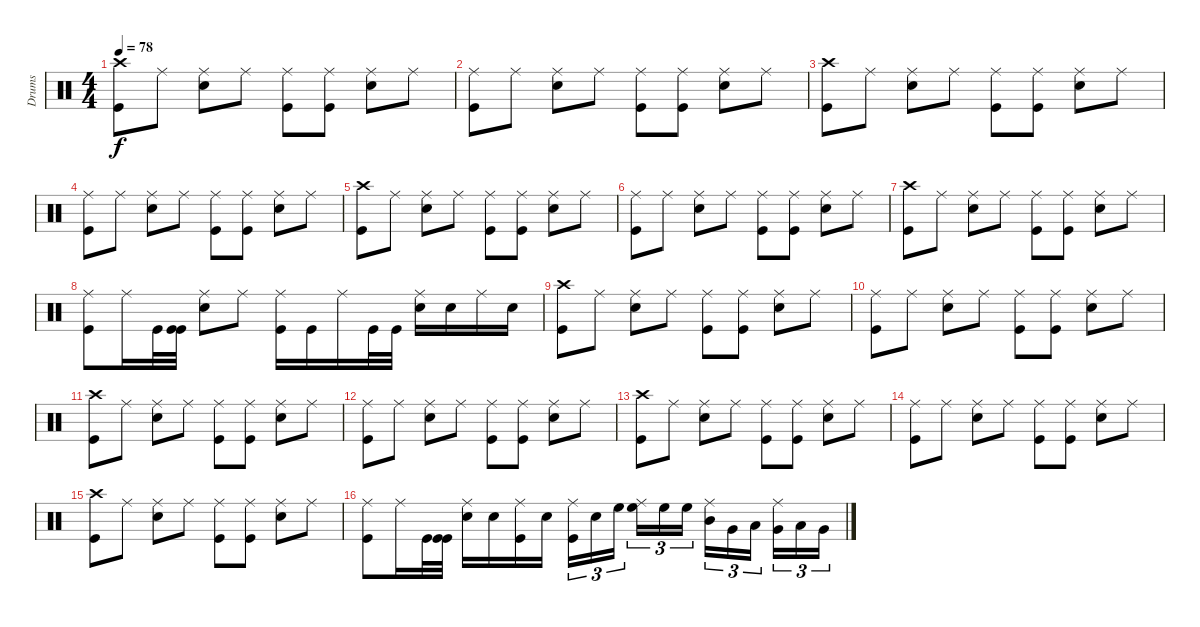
\track ("Drums" "Drums") {instrument percussion}
\staff {score}
\articulation defaults
\ts (4 4)
\tempo 78
\clef neutral
\ks c
("Kick (hit)" "Crash high (hit)").8{dy f} "Ride (middle)".8 ("Snare (hit) 2" "Ride (middle)").8 "Ride (middle)".8 ("Kick (hit)" "Ride (middle)").8 ("Kick (hit)" "Ride (middle)").8 ("Snare (hit) 2" "Ride (middle)").8 "Ride (middle)".8 |
("Kick (hit)" "Ride (middle)").8 "Ride (middle)".8 ("Snare (hit) 2" "Ride (middle)").8 "Ride (middle)".8 ("Kick (hit)" "Ride (middle)").8 ("Kick (hit)" "Ride (middle)").8 ("Snare (hit) 2" "Ride (middle)").8 "Ride (middle)".8 |
("Kick (hit)" "Crash high (hit)").8 "Ride (middle)".8 ("Snare (hit) 2" "Ride (middle)").8 "Ride (middle)".8 ("Kick (hit)" "Ride (middle)").8 ("Kick (hit)" "Ride (middle)").8 ("Snare (hit) 2" "Ride (middle)").8 "Ride (middle)".8 |
("Kick (hit)" "Ride (middle)").8 "Ride (middle)".8 ("Snare (hit) 2" "Ride (middle)").8 "Ride (middle)".8 ("Kick (hit)" "Ride (middle)").8 ("Kick (hit)" "Ride (middle)").8 ("Snare (hit) 2" "Ride (middle)").8 "Ride (middle)".8 |
("Kick (hit)" "Crash high (hit)").8 "Ride (middle)".8 ("Snare (hit) 2" "Ride (middle)").8 "Ride (middle)".8 ("Kick (hit)" "Ride (middle)").8 ("Kick (hit)" "Ride (middle)").8 ("Snare (hit) 2" "Ride (middle)").8 "Ride (middle)".8 |
("Kick (hit)" "Ride (middle)").8 "Ride (middle)".8 ("Snare (hit) 2" "Ride (middle)").8 "Ride (middle)".8 ("Kick (hit)" "Ride (middle)").8 ("Kick (hit)" "Ride (middle)").8 ("Snare (hit) 2" "Ride (middle)").8 "Ride (middle)".8 |
("Kick (hit)" "Crash high (hit)").8 "Ride (middle)".8 ("Snare (hit) 2" "Ride (middle)").8 "Ride (middle)".8 ("Kick (hit)" "Ride (middle)").8 ("Kick (hit)" "Ride (middle)").8 ("Snare (hit) 2" "Ride (middle)").8 "Ride (middle)".8 |
("Kick (hit)" "Ride (middle)").8 "Ride (middle)".16 "Kick (hit)".32 ("Kick (hit)" "Kick (hit)").32 ("Snare (hit) 2" "Ride (middle)").8 "Ride (middle)".8 ("Kick (hit)" "Ride (middle)").16 "Kick (hit)".16 "Ride (middle)".16 "Kick (hit)".32 "Kick (hit)".32 ("Snare (hit) 2" "Ride (middle)").16 "Snare (hit) 2".16 "Ride (middle)".16 "Snare (hit) 2".16 |
("Kick (hit)" "Crash high (hit)").8 "Ride (middle)".8 ("Snare (hit) 2" "Ride (middle)").8 "Ride (middle)".8 ("Kick (hit)" "Ride (middle)").8 ("Kick (hit)" "Ride (middle)").8 ("Snare (hit) 2" "Ride (middle)").8 "Ride (middle)".8 |
("Kick (hit)" "Ride (middle)").8 "Ride (middle)".8 ("Snare (hit) 2" "Ride (middle)").8 "Ride (middle)".8 ("Kick (hit)" "Ride (middle)").8 ("Kick (hit)" "Ride (middle)").8 ("Snare (hit) 2" "Ride (middle)").8 "Ride (middle)".8 |
("Kick (hit)" "Crash high (hit)").8 "Ride (middle)".8 ("Snare (hit) 2" "Ride (middle)").8 "Ride (middle)".8 ("Kick (hit)" "Ride (middle)").8 ("Kick (hit)" "Ride (middle)").8 ("Snare (hit) 2" "Ride (middle)").8 "Ride (middle)".8 |
("Kick (hit)" "Ride (middle)").8 "Ride (middle)".8 ("Snare (hit) 2" "Ride (middle)").8 "Ride (middle)".8 ("Kick (hit)" "Ride (middle)").8 ("Kick (hit)" "Ride (middle)").8 ("Snare (hit) 2" "Ride (middle)").8 "Ride (middle)".8 |
("Kick (hit)" "Crash high (hit)").8 "Ride (middle)".8 ("Snare (hit) 2" "Ride (middle)").8 "Ride (middle)".8 ("Kick (hit)" "Ride (middle)").8 ("Kick (hit)" "Ride (middle)").8 ("Snare (hit) 2" "Ride (middle)").8 "Ride (middle)".8 |
("Kick (hit)" "Ride (middle)").8 "Ride (middle)".8 ("Snare (hit) 2" "Ride (middle)").8 "Ride (middle)".8 ("Kick (hit)" "Ride (middle)").8 ("Kick (hit)" "Ride (middle)").8 ("Snare (hit) 2" "Ride (middle)").8 "Ride (middle)".8 |
("Kick (hit)" "Crash high (hit)").8 "Ride (middle)".8 ("Snare (hit) 2" "Ride (middle)").8 "Ride (middle)".8 ("Kick (hit)" "Ride (middle)").8 ("Kick (hit)" "Ride (middle)").8 ("Snare (hit) 2" "Ride (middle)").8 "Ride (middle)".8 |
("Kick (hit)" "Ride (middle)").8 "Ride (middle)".16 "Kick (hit)".32 ("Kick (hit)" "Kick (hit)").32 ("Snare (hit) 2" "Ride (middle)").16 "Snare (hit) 2".16 ("Kick (hit)" "Ride (middle)").16 "Snare (hit) 2".16 ("Kick (hit)" "Ride (middle)").16{tu (3 2)} "Snare (hit) 2".16{tu (3 2)} "High Floor Tom (hit)".16{tu (3 2)} ("High Floor Tom (hit)" "Ride (middle)").16{tu (3 2)} "High Floor Tom (hit)".16{tu (3 2)} "High Floor Tom (hit)".16{tu (3 2)} ("Mid Tom (hit)" "Ride (middle)").16{tu (3 2)} "Very Low Tom (hit)".16{tu (3 2)} "Low Tom (hit)".16{tu (3 2)} ("Very Low Tom (hit)" "Ride (middle)").16{tu (3 2)} "Low Tom (hit)".16{tu (3 2)} "Very Low Tom (hit)".16{tu (3 2)}
